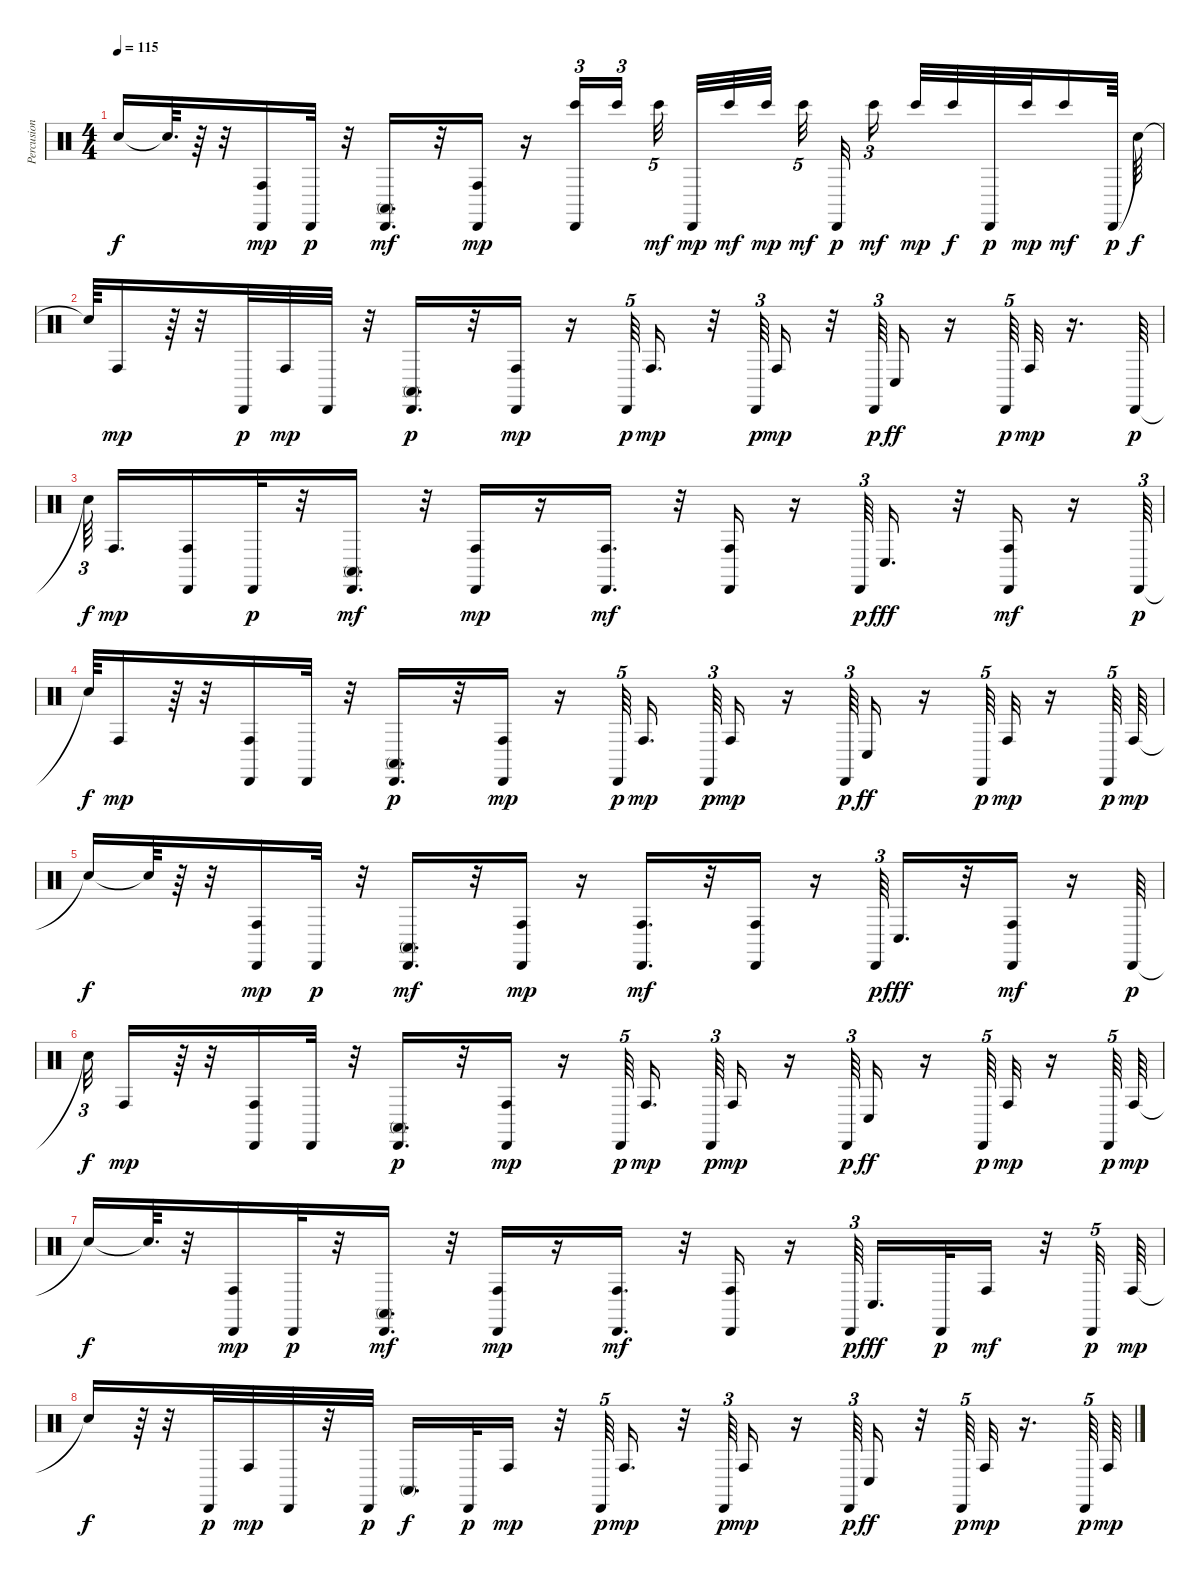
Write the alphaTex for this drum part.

\track ("Percusion" "Percusion") {instrument percussion}
\staff {score}
\articulation defaults
\ts (4 4)
\tempo 115
\clef neutral
\ks c "Snare (hit)"{t}.16{dy f} "Snare (hit)"{t}.64{d}
r.64 r.32 ("Cabasa (hit)" "Conga high (hit)").16{dy mp} "Cabasa (hit)".32{dy p} r.32 ("Cabasa (hit)" "Conga high (mute)").16{d dy mf} r.32 ("Cabasa (hit)" "Conga high (hit)").16{dy mp} r.16 ("Cabasa (hit)" "Bongo High (hit)").16{tu (3 2)} "Bongo High (hit)".16{tu (3 2)} "Bongo High (hit)".32{tu (5 4) dy mf beam splitsecondary} "Cabasa (hit)".32{dy mp} "Bongo High (hit)".32{dy mf} "Bongo High (hit)".32{dy mp beam splitsecondary} "Bongo High (hit)".32{tu (5 4) dy mf} "Cabasa (hit)".32{dy p} "Bongo High (hit)".16{tu (3 2) dy mf beam splitsecondary} "Bongo High (hit)".32{dy mp} "Bongo High (hit)".32{dy f} "Cabasa (hit)".32{dy p} "Bongo High (hit)".32{dy mp} "Bongo High (hit)".16{dy mf} "Cabasa (hit)".64{dy p} "Snare (hit)"{t}.64{dy f} |
"Snare (hit)"{t}.64 "Conga high (hit)".16{dy mp} r.64 r.32 "Cabasa (hit)".32{dy p} "Conga high (hit)".32{dy mp} "Cabasa (hit)".32 r.32 ("Cabasa (hit)" "Conga high (mute)").16{d dy p} r.32 ("Cabasa (hit)" "Conga high (hit)").16{dy mp} r.16 "Cabasa (hit)".64{tu (5 4) dy p} "Conga high (hit)".16{d dy mp} r.32 "Cabasa (hit)".64{tu (3 2) dy p} "Conga high (hit)".16{dy mp} r.32 "Cabasa (hit)".64{tu (3 2) dy p} "Conga low (hit)".16{dy ff} r.16 "Cabasa (hit)".64{tu (5 4) dy p} "Conga high (hit)".32{dy mp} r.16{d} "Cabasa (hit)".64{dy p} |
"Snare (hit)"{t}.64{tu (3 2) dy f beam splitsecondary} "Conga high (hit)".16{d dy mp} ("Cabasa (hit)" "Conga high (hit)").16 "Cabasa (hit)".32{dy p} r.32 ("Cabasa (hit)" "Conga high (mute)").16{d dy mf} r.32 ("Cabasa (hit)" "Conga high (hit)").16{dy mp} r.16 ("Cabasa (hit)" "Conga high (hit)").16{d dy mf} r.32 ("Cabasa (hit)" "Conga high (hit)").16 r.16 "Cabasa (hit)".64{tu (3 2) dy p} "Conga low (hit)".16{d dy fff} r.32 ("Cabasa (hit)" "Conga high (hit)").16{dy mf} r.16 "Cabasa (hit)".64{tu (3 2) dy p} |
"Snare (hit)"{t}.64{dy f} "Conga high (hit)".16{dy mp} r.64 r.32 ("Cabasa (hit)" "Conga high (hit)").16 "Cabasa (hit)".32 r.32 ("Cabasa (hit)" "Conga high (mute)").16{d dy p} r.32 ("Cabasa (hit)" "Conga high (hit)").16{dy mp} r.16 "Cabasa (hit)".64{tu (5 4) dy p beam splitsecondary} "Conga high (hit)".16{d dy mp beam splitsecondary} "Cabasa (hit)".64{tu (3 2) dy p} "Conga high (hit)".16{dy mp} r.16 "Cabasa (hit)".64{tu (3 2) dy p} "Conga low (hit)".16{dy ff} r.16 "Cabasa (hit)".64{tu (5 4) dy p} "Conga high (hit)".32{dy mp} r.16 "Cabasa (hit)".64{tu (5 4) dy p} "Conga high (hit)".64{dy mp} |
"Snare (hit)"{t}.16{dy f} "Snare (hit)"{t}.64 r.64 r.32 ("Cabasa (hit)" "Conga high (hit)").16{dy mp} "Cabasa (hit)".32{dy p} r.32 ("Cabasa (hit)" "Conga high (mute)").16{d dy mf} r.32 ("Cabasa (hit)" "Conga high (hit)").16{dy mp} r.16 ("Cabasa (hit)" "Conga high (hit)").16{d dy mf} r.32 ("Cabasa (hit)" "Conga high (hit)").16 r.16 "Cabasa (hit)".64{tu (3 2) dy p} "Conga low (hit)".16{d dy fff} r.32 ("Cabasa (hit)" "Conga high (hit)").16{dy mf} r.16 "Cabasa (hit)".64{dy p} |
"Snare (hit)"{t}.32{tu (3 2) dy f} "Conga high (hit)".16{dy mp} r.64 r.32 ("Cabasa (hit)" "Conga high (hit)").16 "Cabasa (hit)".32 r.32 ("Cabasa (hit)" "Conga high (mute)").16{d dy p} r.32 ("Cabasa (hit)" "Conga high (hit)").16{dy mp} r.16 "Cabasa (hit)".64{tu (5 4) dy p beam splitsecondary} "Conga high (hit)".16{d dy mp beam splitsecondary} "Cabasa (hit)".64{tu (3 2) dy p} "Conga high (hit)".16{dy mp} r.16 "Cabasa (hit)".64{tu (3 2) dy p} "Conga low (hit)".16{dy ff} r.16 "Cabasa (hit)".64{tu (5 4) dy p} "Conga high (hit)".32{dy mp} r.16 "Cabasa (hit)".64{tu (5 4) dy p} "Conga high (hit)".64{dy mp} |
"Snare (hit)"{t}.16{dy f} "Snare (hit)"{t}.64{d} r.32 ("Cabasa (hit)" "Conga high (hit)").16{dy mp} "Cabasa (hit)".32{dy p} r.32 ("Cabasa (hit)" "Conga high (mute)").16{d dy mf} r.32 ("Cabasa (hit)" "Conga high (hit)").16{dy mp} r.16 ("Cabasa (hit)" "Conga high (hit)").16{d dy mf} r.32 ("Cabasa (hit)" "Conga high (hit)").16 r.16 "Cabasa (hit)".64{tu (3 2) dy p} "Conga low (hit)".16{d dy fff} "Cabasa (hit)".32{dy p} "Conga high (hit)".16{dy mf} r.32 "Cabasa (hit)".32{tu (5 4) dy p} "Conga high (hit)".64{dy mp} |
"Snare (hit)"{t}.16{dy f} r.64 r.32 "Cabasa (hit)".32{dy p} "Conga high (hit)".32{dy mp} "Cabasa (hit)".32 r.32 "Cabasa (hit)".32{dy p} "Conga high (mute)".16{d dy f} "Cabasa (hit)".32{dy p} "Conga high (hit)".16{dy mp} r.32 "Cabasa (hit)".64{tu (5 4) dy p} "Conga high (hit)".16{d dy mp} r.32 "Cabasa (hit)".64{tu (3 2) dy p} "Conga high (hit)".16{dy mp} r.16 "Cabasa (hit)".64{tu (3 2) dy p} "Conga low (hit)".16{dy ff} r.32 "Cabasa (hit)".64{tu (5 4) dy p} "Conga high (hit)".32{dy mp} r.16{d} "Cabasa (hit)".64{tu (5 4) dy p} "Conga high (hit)".64{dy mp}
